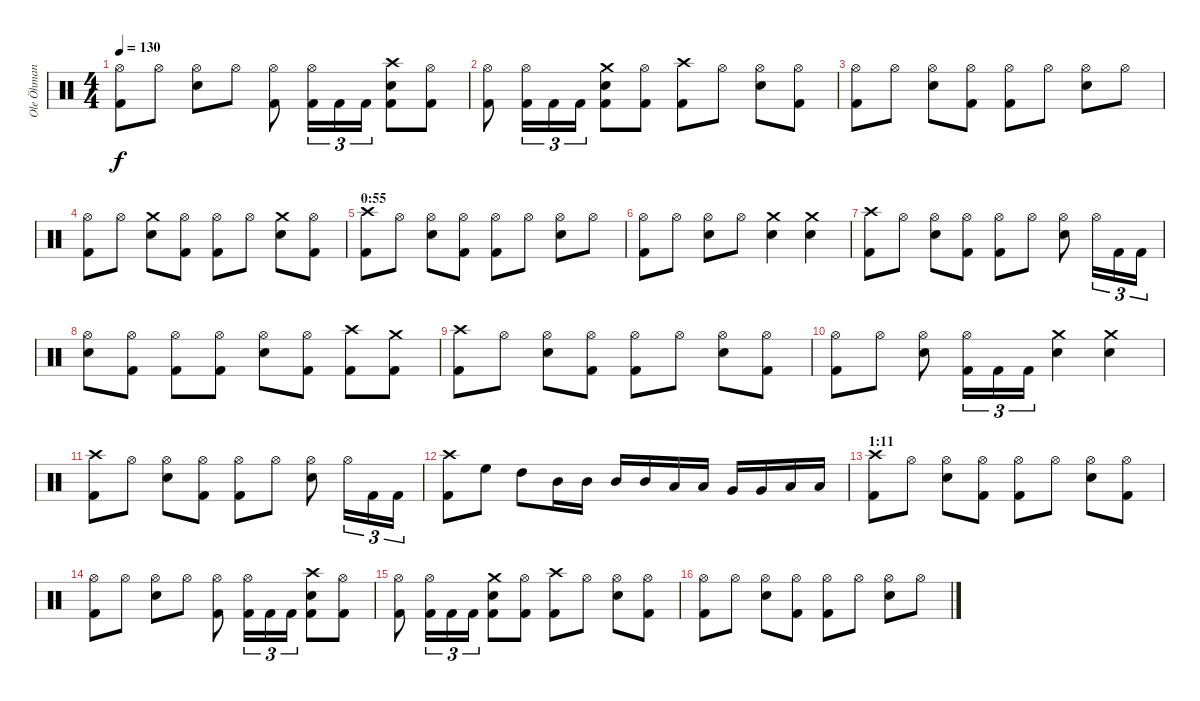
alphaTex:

\track ("Ole Öhman" "Ole Öhman") {instrument percussion}
\staff {score}
\articulation defaults
\ts (4 4)
\tempo 130
\clef neutral
\ks c
("Hi-Hat (open)" "Kick (hit) 2").8{dy f} "Hi-Hat (open)".8 ("Hi-Hat (open)" "Electric Snare (hit)").8 "Hi-Hat (open)".8 ("Hi-Hat (open)" "Kick (hit) 2").8 ("Hi-Hat (open)" "Kick (hit) 2").16{tu (3 2)} "Kick (hit) 2".16{tu (3 2)} "Kick (hit) 2".16{tu (3 2)} ("Crash high (hit)" "Electric Snare (hit)" "Kick (hit) 2").8 ("Hi-Hat (open)" "Kick (hit) 2").8 |
("Hi-Hat (open)" "Kick (hit) 2").8 ("Hi-Hat (open)" "Kick (hit) 2").16{tu (3 2)} "Kick (hit) 2".16{tu (3 2)} "Kick (hit) 2".16{tu (3 2)} ("Crash medium (hit)" "Electric Snare (hit)" "Kick (hit) 2").8 ("Hi-Hat (open)" "Kick (hit) 2").8 ("Crash high (hit)" "Kick (hit) 2").8 "Hi-Hat (open)".8 ("Hi-Hat (open)" "Electric Snare (hit)").8 ("Hi-Hat (open)" "Kick (hit) 2").8 |
("Hi-Hat (open)" "Kick (hit) 2").8 "Hi-Hat (open)".8 ("Hi-Hat (open)" "Electric Snare (hit)").8 ("Hi-Hat (open)" "Kick (hit) 2").8 ("Hi-Hat (open)" "Kick (hit) 2").8 "Hi-Hat (open)".8 ("Hi-Hat (open)" "Electric Snare (hit)").8 "Hi-Hat (open)".8 |
("Hi-Hat (open)" "Kick (hit) 2").8 "Hi-Hat (open)".8 ("Crash medium (hit)" "Electric Snare (hit)").8 ("Hi-Hat (open)" "Kick (hit) 2").8 ("Hi-Hat (open)" "Kick (hit) 2").8 "Hi-Hat (open)".8 ("Crash medium (hit)" "Electric Snare (hit)").8 ("Hi-Hat (open)" "Kick (hit) 2").8 |
\section ("" "0:55")
("Crash high (hit)" "Kick (hit) 2").8 "Hi-Hat (open)".8 ("Hi-Hat (open)" "Electric Snare (hit)").8 ("Hi-Hat (open)" "Kick (hit) 2").8 ("Hi-Hat (open)" "Kick (hit) 2").8 "Hi-Hat (open)".8 ("Hi-Hat (open)" "Electric Snare (hit)").8 "Hi-Hat (open)".8 |
("Hi-Hat (open)" "Kick (hit) 2").8 "Hi-Hat (open)".8 ("Hi-Hat (open)" "Electric Snare (hit)").8 "Hi-Hat (open)".8 ("Crash medium (hit)" "Electric Snare (hit)").4 ("Crash medium (hit)" "Electric Snare (hit)").4 |
("Crash high (hit)" "Kick (hit) 2").8 "Hi-Hat (open)".8 ("Hi-Hat (open)" "Electric Snare (hit)").8 ("Hi-Hat (open)" "Kick (hit) 2").8 ("Hi-Hat (open)" "Kick (hit) 2").8 "Hi-Hat (open)".8 ("Hi-Hat (open)" "Electric Snare (hit)").8 "Hi-Hat (open)".16{tu (3 2)} "Kick (hit) 2".16{tu (3 2)} "Kick (hit) 2".16{tu (3 2)} |
("Hi-Hat (open)" "Electric Snare (hit)").8 ("Hi-Hat (open)" "Kick (hit) 2").8 ("Hi-Hat (open)" "Kick (hit) 2").8 ("Hi-Hat (open)" "Kick (hit) 2").8 ("Hi-Hat (open)" "Electric Snare (hit)").8 ("Hi-Hat (open)" "Kick (hit) 2").8 ("Crash high (hit)" "Kick (hit) 2").8 ("Crash medium (hit)" "Kick (hit) 2").8 |
("Crash high (hit)" "Kick (hit) 2").8 "Hi-Hat (open)".8 ("Hi-Hat (open)" "Electric Snare (hit)").8 ("Hi-Hat (open)" "Kick (hit) 2").8 ("Hi-Hat (open)" "Kick (hit) 2").8 "Hi-Hat (open)".8 ("Hi-Hat (open)" "Electric Snare (hit)").8 ("Hi-Hat (open)" "Kick (hit) 2").8 |
("Hi-Hat (open)" "Kick (hit) 2").8 "Hi-Hat (open)".8 ("Hi-Hat (open)" "Electric Snare (hit)").8 ("Hi-Hat (open)" "Kick (hit) 2").16{tu (3 2)} "Kick (hit) 2".16{tu (3 2)} "Kick (hit) 2".16{tu (3 2)} ("Crash medium (hit)" "Electric Snare (hit)").4 ("Crash medium (hit)" "Electric Snare (hit)").4 |
("Crash high (hit)" "Kick (hit) 2").8 "Hi-Hat (open)".8 ("Hi-Hat (open)" "Electric Snare (hit)").8 ("Hi-Hat (open)" "Kick (hit) 2").8 ("Hi-Hat (open)" "Kick (hit) 2").8 "Hi-Hat (open)".8 ("Hi-Hat (open)" "Electric Snare (hit)").8 "Hi-Hat (open)".16{tu (3 2)} "Kick (hit) 2".16{tu (3 2)} "Kick (hit) 2".16{tu (3 2)} |
("Crash high (hit)" "Kick (hit) 2").8 "High Floor Tom (hit)".8 "High Tom (hit)".8 "Mid Tom (hit)".16 "Mid Tom (hit)".16 "Mid Tom (hit)".16 "Mid Tom (hit)".16 "Low Tom (hit)".16 "Low Tom (hit)".16 "Very Low Tom (hit)".16 "Very Low Tom (hit)".16 "Low Floor Tom (hit)".16 "Low Floor Tom (hit)".16 |
\section ("" "1:11")
("Crash high (hit)" "Kick (hit) 2").8 "Hi-Hat (open)".8 ("Hi-Hat (open)" "Electric Snare (hit)").8 ("Hi-Hat (open)" "Kick (hit) 2").8 ("Hi-Hat (open)" "Kick (hit) 2").8 "Hi-Hat (open)".8 ("Hi-Hat (open)" "Electric Snare (hit)").8 ("Hi-Hat (open)" "Kick (hit) 2").8 |
("Hi-Hat (open)" "Kick (hit) 2").8 "Hi-Hat (open)".8 ("Hi-Hat (open)" "Electric Snare (hit)").8 "Hi-Hat (open)".8 ("Hi-Hat (open)" "Kick (hit) 2").8 ("Hi-Hat (open)" "Kick (hit) 2").16{tu (3 2)} "Kick (hit) 2".16{tu (3 2)} "Kick (hit) 2".16{tu (3 2)} ("Crash high (hit)" "Electric Snare (hit)" "Kick (hit) 2").8 ("Hi-Hat (open)" "Kick (hit) 2").8 |
("Hi-Hat (open)" "Kick (hit) 2").8 ("Hi-Hat (open)" "Kick (hit) 2").16{tu (3 2)} "Kick (hit) 2".16{tu (3 2)} "Kick (hit) 2".16{tu (3 2)} ("Crash medium (hit)" "Electric Snare (hit)" "Kick (hit) 2").8 ("Hi-Hat (open)" "Kick (hit) 2").8 ("Crash high (hit)" "Kick (hit) 2").8 "Hi-Hat (open)".8 ("Hi-Hat (open)" "Electric Snare (hit)").8 ("Hi-Hat (open)" "Kick (hit) 2").8 |
("Hi-Hat (open)" "Kick (hit) 2").8 "Hi-Hat (open)".8 ("Hi-Hat (open)" "Electric Snare (hit)").8 ("Hi-Hat (open)" "Kick (hit) 2").8 ("Hi-Hat (open)" "Kick (hit) 2").8 "Hi-Hat (open)".8 ("Hi-Hat (open)" "Electric Snare (hit)").8 "Hi-Hat (open)".8
